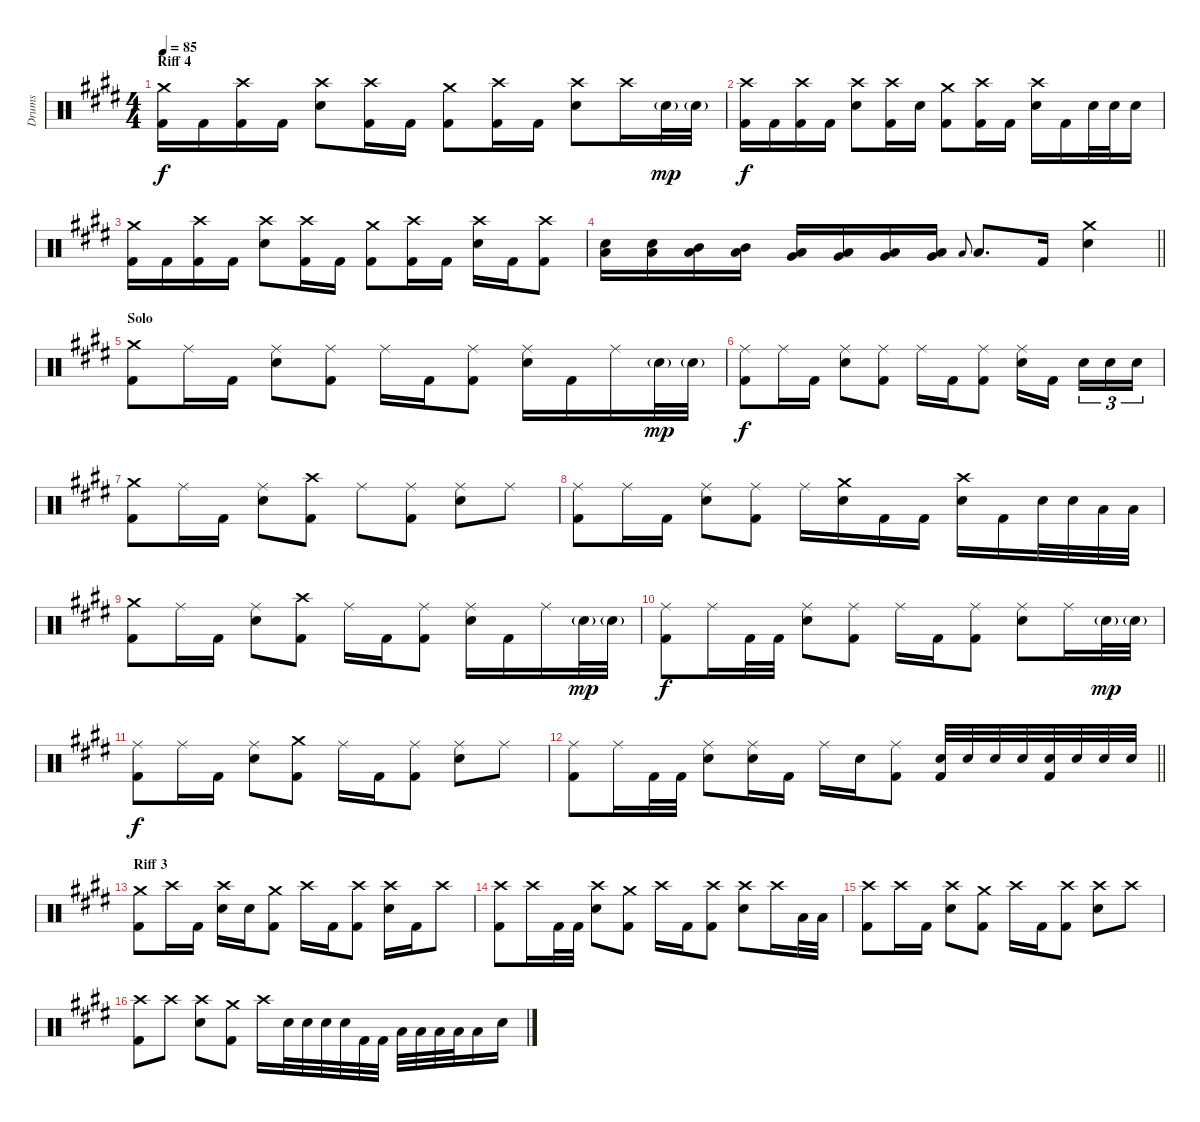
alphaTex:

\track ("Drums" "Drums") {instrument percussion}
\staff {score}
\articulation defaults
\ts (4 4)
\section ("" "Riff 4")
\tempo 85
\clef neutral
\ks e
("Kick (hit) 2" "Crash medium (hit)").16{dy f} "Kick (hit) 2".16 ("Crash high (hit)" "Kick (hit) 2").16 "Kick (hit) 2".16 ("Crash high (hit)" "Electric Snare (hit)").8 ("Kick (hit) 2" "Crash high (hit)").16 "Kick (hit) 2".16 ("Kick (hit) 2" "Crash medium (hit)").8 ("Kick (hit) 2" "Crash high (hit)").16 "Kick (hit) 2".16 ("Electric Snare (hit)" "Crash high (hit)").8 "Crash high (hit)".16 "Electric Snare (hit)"{g}.32{dy mp} "Electric Snare (hit)"{g}.32 |
("Kick (hit) 2" "Crash high (hit)").16{dy f} "Kick (hit) 2".16 ("Crash high (hit)" "Kick (hit) 2").16 "Kick (hit) 2".16 ("Crash high (hit)" "Electric Snare (hit)").8 ("Kick (hit) 2" "Crash high (hit)").16 "Electric Snare (hit)".16 ("Kick (hit) 2" "Crash medium (hit)").8 ("Kick (hit) 2" "Crash high (hit)").16 "Kick (hit) 2".16 ("Electric Snare (hit)" "Crash high (hit)").16 "Kick (hit) 2".16 "Electric Snare (hit)".32 "Electric Snare (hit)".32 "Electric Snare (hit)".16 |
("Kick (hit) 2" "Crash medium (hit)").16 "Kick (hit) 2".16 ("Crash high (hit)" "Kick (hit) 2").16 "Kick (hit) 2".16 ("Crash high (hit)" "Electric Snare (hit)").8 ("Kick (hit) 2" "Crash high (hit)").16 "Kick (hit) 2".16 ("Kick (hit) 2" "Crash medium (hit)").8 ("Kick (hit) 2" "Crash high (hit)").16 "Kick (hit) 2".16 ("Electric Snare (hit)" "Crash high (hit)").16 "Kick (hit) 2".16 ("Kick (hit) 2" "Crash high (hit)").8 |
\barLineRight lightlight
("Electric Snare (hit)" "Low Floor Tom (hit)").16 ("Electric Snare (hit)" "Low Floor Tom (hit)").16 ("Mid Tom (hit)" "Low Tom (hit)").16 ("Mid Tom (hit)" "Low Tom (hit)").16 ("Low Tom (hit)" "Very Low Tom (hit)").16 ("Low Tom (hit)" "Very Low Tom (hit)").16 ("Very Low Tom (hit)" "Low Floor Tom (hit)").16 ("Very Low Tom (hit)" "Low Floor Tom (hit)").16 "Low Floor Tom (hit)".8{gr onbeat} "Low Floor Tom (hit)".8{d} "Kick (hit) 2".16 ("Electric Snare (hit)" "Crash medium (hit)").4 |
\section ("" "Solo")
("Kick (hit) 2" "Crash medium (hit)").8 "Ride (middle)".16 "Kick (hit) 2".16 ("Electric Snare (hit)" "Ride (middle)").8 ("Kick (hit) 2" "Ride (middle)").8 "Ride (middle)".16 "Kick (hit) 2".16 ("Kick (hit) 2" "Ride (middle)").8 ("Electric Snare (hit)" "Ride (middle)").16 "Kick (hit) 2".16 "Ride (middle)".16 "Electric Snare (hit)"{g}.32{dy mp} "Electric Snare (hit)"{g}.32 |
("Kick (hit) 2" "Ride (middle)").8{dy f} "Ride (middle)".16 "Kick (hit) 2".16 ("Electric Snare (hit)" "Ride (middle)").8 ("Kick (hit) 2" "Ride (middle)").8 "Ride (middle)".16 "Kick (hit) 2".16 ("Kick (hit) 2" "Ride (middle)").8 ("Electric Snare (hit)" "Ride (middle)").16 "Kick (hit) 2".16{beam splitsecondary} "Electric Snare (hit)".16{tu (3 2)} "Electric Snare (hit)".16{tu (3 2)} "Electric Snare (hit)".16{tu (3 2)} |
("Kick (hit) 2" "Crash medium (hit)").8 "Ride (middle)".16 "Kick (hit) 2".16 ("Electric Snare (hit)" "Ride (middle)").8 ("Kick (hit) 2" "Crash high (hit)").8 "Ride (middle)".8 ("Kick (hit) 2" "Ride (middle)").8 ("Electric Snare (hit)" "Ride (middle)").8 "Ride (middle)".8 |
("Kick (hit) 2" "Ride (middle)").8 "Ride (middle)".16 "Kick (hit) 2".16 ("Electric Snare (hit)" "Ride (middle)").8 ("Kick (hit) 2" "Ride (middle)").8 "Ride (middle)".16 ("Electric Snare (hit)" "Crash medium (hit)").16 "Kick (hit) 2".16 "Kick (hit) 2".16 ("Electric Snare (hit)" "Crash high (hit)").16 "Kick (hit) 2".16 "Electric Snare (hit)".32 "Electric Snare (hit)".32 "Low Tom (hit)".32 "Low Tom (hit)".32 |
("Kick (hit) 2" "Crash medium (hit)").8 "Ride (middle)".16 "Kick (hit) 2".16 ("Electric Snare (hit)" "Ride (middle)").8 ("Kick (hit) 2" "Crash high (hit)").8 "Ride (middle)".16 "Kick (hit) 2".16 ("Kick (hit) 2" "Ride (middle)").8 ("Electric Snare (hit)" "Ride (middle)").16 "Kick (hit) 2".16 "Ride (middle)".16 "Electric Snare (hit)"{g}.32{dy mp} "Electric Snare (hit)"{g}.32 |
("Kick (hit) 2" "Ride (middle)").8{dy f} "Ride (middle)".16 "Kick (hit) 2".32 "Kick (hit) 2".32 ("Electric Snare (hit)" "Ride (middle)").8 ("Kick (hit) 2" "Ride (middle)").8 "Ride (middle)".16 "Kick (hit) 2".16 ("Kick (hit) 2" "Ride (middle)").8 ("Electric Snare (hit)" "Ride (middle)").8 "Ride (middle)".16 "Electric Snare (hit)"{g}.32{dy mp} "Electric Snare (hit)"{g}.32 |
("Kick (hit) 2" "Ride (middle)").8{dy f} "Ride (middle)".16 "Kick (hit) 2".16 ("Electric Snare (hit)" "Ride (middle)").8 ("Kick (hit) 2" "Crash medium (hit)").8 "Ride (middle)".16 "Kick (hit) 2".16 ("Kick (hit) 2" "Ride (middle)").8 ("Electric Snare (hit)" "Ride (middle)").8 "Ride (middle)".8 |
\barLineRight lightlight
("Kick (hit) 2" "Ride (middle)").8 "Ride (middle)".16 "Kick (hit) 2".32 "Kick (hit) 2".32 ("Electric Snare (hit)" "Ride (middle)").8 ("Electric Snare (hit)" "Ride (middle)").16 "Kick (hit) 2".16 "Ride (middle)".16 "Electric Snare (hit)".16 ("Kick (hit) 2" "Ride (middle)").8 ("Kick (hit) 2" "Electric Snare (hit)").32 "Electric Snare (hit)".32 "Electric Snare (hit)".32 "Electric Snare (hit)".32 ("Kick (hit) 2" "Electric Snare (hit)").32 "Electric Snare (hit)".32 "Electric Snare (hit)".32 "Electric Snare (hit)".32 |
\section ("" "Riff 3")
("Crash medium (hit)" "Kick (hit) 2").8 "Crash high (hit)".16 "Kick (hit) 2".16 ("Electric Snare (hit)" "Crash high (hit)").16 "Electric Snare (hit)".16 ("Kick (hit) 2" "Crash medium (hit)").8 "Crash high (hit)".16 "Kick (hit) 2".16 ("Kick (hit) 2" "Crash high (hit)").8 ("Electric Snare (hit)" "Crash high (hit)").16 "Kick (hit) 2".16 "Crash high (hit)".8 |
("Crash high (hit)" "Kick (hit) 2").8 "Crash high (hit)".16 "Kick (hit) 2".32 "Kick (hit) 2".32 ("Electric Snare (hit)" "Crash high (hit)").8 ("Kick (hit) 2" "Crash medium (hit)").8 "Crash high (hit)".16 "Kick (hit) 2".16 ("Kick (hit) 2" "Crash high (hit)").8 ("Electric Snare (hit)" "Crash high (hit)").8 "Crash high (hit)".16 "Low Tom (hit)".32 "Low Tom (hit)".32 |
("Crash high (hit)" "Kick (hit) 2").8 "Crash high (hit)".16 "Kick (hit) 2".16 ("Electric Snare (hit)" "Crash high (hit)").8 ("Kick (hit) 2" "Crash medium (hit)").8 "Crash high (hit)".16 "Kick (hit) 2".16 ("Kick (hit) 2" "Crash high (hit)").8 ("Electric Snare (hit)" "Crash high (hit)").8 "Crash high (hit)".8 |
("Crash high (hit)" "Kick (hit) 2").8 "Crash high (hit)".8 ("Electric Snare (hit)" "Crash high (hit)").8 ("Kick (hit) 2" "Crash medium (hit)").8 "Crash high (hit)".16 "Electric Snare (hit)".32 "Electric Snare (hit)".32 "Electric Snare (hit)".32 "Electric Snare (hit)".32 "Kick (hit) 2".32 "Kick (hit) 2".32 "Low Tom (hit)".32 "Low Tom (hit)".32 "Low Tom (hit)".32 "Low Tom (hit)".32 "Low Floor Tom (hit)".16 "Electric Snare (hit)".16
